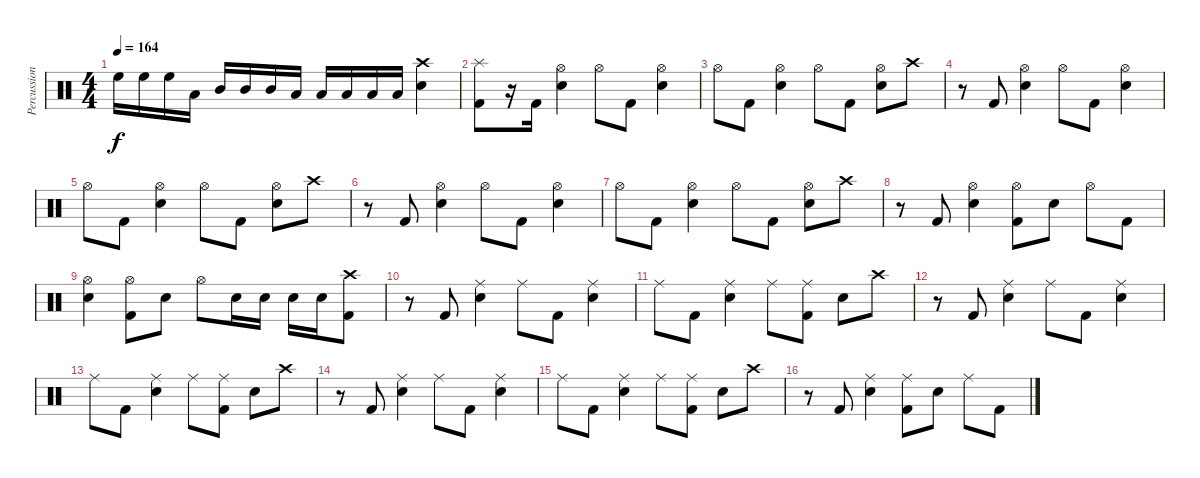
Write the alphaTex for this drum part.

\track ("Percussion" "Percussion") {instrument percussion}
\staff {score}
\articulation defaults
\ts (4 4)
\tempo 164
\clef neutral
\ks c "High Floor Tom (hit)".16{dy f} "High Floor Tom (hit)".16 "High Floor Tom (hit)".16 "Low Floor Tom (hit)".16 "Mid Tom (hit)".16 "Mid Tom (hit)".16 "Mid Tom (hit)".16 "Low Floor Tom (hit)".16 "Low Tom (hit)".16 "Low Tom (hit)".16 "Low Tom (hit)".16 "Low Floor Tom (hit)".16
("Crash high (hit)" "Snare (hit) 2").4 |
("Splash (hit)" "Kick (hit) 2").8 r.16 "Kick (hit) 2".16 ("Hi-Hat (open)" "Snare (hit) 2").4 "Hi-Hat (open)".8 "Kick (hit) 2".8 ("Hi-Hat (open)" "Snare (hit) 2").4 |
"Hi-Hat (open)".8 "Kick (hit) 2".8 ("Hi-Hat (open)" "Snare (hit) 2").4 "Hi-Hat (open)".8 "Kick (hit) 2".8 ("Hi-Hat (open)" "Snare (hit) 2").8 "Crash high (hit)".8 |
r.8 "Kick (hit) 2".8 ("Hi-Hat (open)" "Snare (hit) 2").4 "Hi-Hat (open)".8 "Kick (hit) 2".8 ("Hi-Hat (open)" "Snare (hit) 2").4 |
"Hi-Hat (open)".8 "Kick (hit) 2".8 ("Hi-Hat (open)" "Snare (hit) 2").4 "Hi-Hat (open)".8 "Kick (hit) 2".8 ("Hi-Hat (open)" "Snare (hit) 2").8 "Crash high (hit)".8 |
r.8 "Kick (hit) 2".8 ("Hi-Hat (open)" "Snare (hit) 2").4 "Hi-Hat (open)".8 "Kick (hit) 2".8 ("Hi-Hat (open)" "Snare (hit) 2").4 |
"Hi-Hat (open)".8 "Kick (hit) 2".8 ("Hi-Hat (open)" "Snare (hit) 2").4 "Hi-Hat (open)".8 "Kick (hit) 2".8 ("Hi-Hat (open)" "Snare (hit) 2").8 "Crash high (hit)".8 |
r.8 "Kick (hit) 2".8 ("Hi-Hat (open)" "Snare (hit) 2").4 ("Hi-Hat (open)" "Kick (hit) 2").8 "Snare (hit) 2".8 "Hi-Hat (open)".8 "Kick (hit) 2".8 |
("Hi-Hat (open)" "Snare (hit) 2").4 ("Hi-Hat (open)" "Kick (hit) 2").8 "Snare (hit) 2".8 "Hi-Hat (open)".8 "Snare (hit) 2".16 "Snare (hit) 2".16 "Snare (hit) 2".16 "Snare (hit) 2".16 ("Crash high (hit)" "Kick (hit) 2").8 |
r.8 "Kick (hit) 2".8 ("Ride (middle)" "Snare (hit) 2").4 "Ride (middle)".8 "Kick (hit) 2".8 ("Ride (middle)" "Snare (hit) 2").4 |
"Ride (middle)".8 "Kick (hit) 2".8 ("Ride (middle)" "Snare (hit) 2").4 "Ride (middle)".8 ("Ride (middle)" "Kick (hit) 2").8 "Snare (hit) 2".8 "Crash high (hit)".8 |
r.8 "Kick (hit) 2".8 ("Ride (middle)" "Snare (hit) 2").4 "Ride (middle)".8 "Kick (hit) 2".8 ("Ride (middle)" "Snare (hit) 2").4 |
"Ride (middle)".8 "Kick (hit) 2".8 ("Ride (middle)" "Snare (hit) 2").4 "Ride (middle)".8 ("Ride (middle)" "Kick (hit) 2").8 "Snare (hit) 2".8 "Crash high (hit)".8 |
r.8 "Kick (hit) 2".8 ("Ride (middle)" "Snare (hit) 2").4 "Ride (middle)".8 "Kick (hit) 2".8 ("Ride (middle)" "Snare (hit) 2").4 |
"Ride (middle)".8 "Kick (hit) 2".8 ("Ride (middle)" "Snare (hit) 2").4 "Ride (middle)".8 ("Ride (middle)" "Kick (hit) 2").8 "Snare (hit) 2".8 "Crash high (hit)".8 |
r.8 "Kick (hit) 2".8 ("Ride (middle)" "Snare (hit) 2").4 ("Ride (middle)" "Kick (hit) 2").8 "Snare (hit) 2".8 "Ride (middle)".8 "Kick (hit) 2".8
